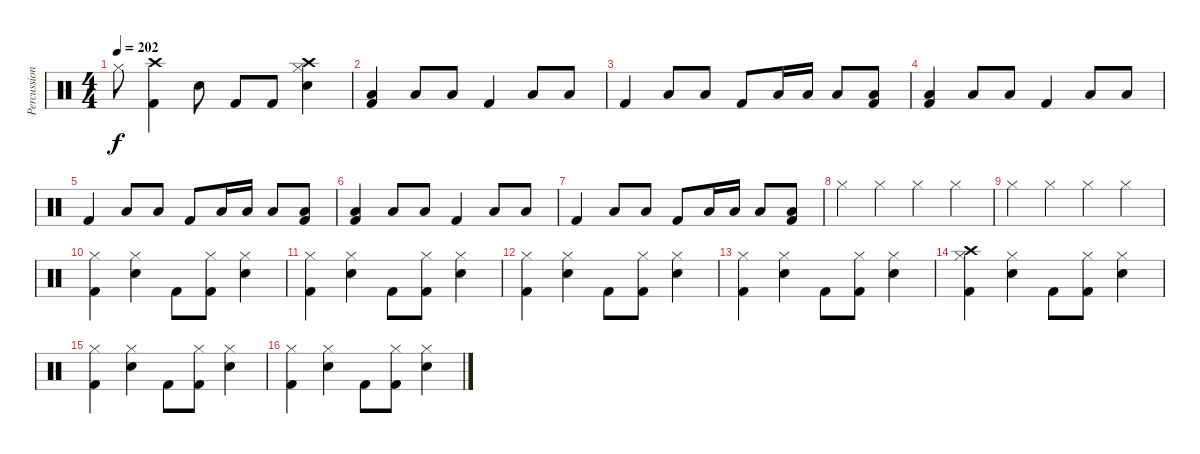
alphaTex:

\track ("Percussioni" "Percussion") {instrument percussion}
\staff {score}
\articulation defaults
\ts (4 4)
\tempo 202
\clef neutral
\ks c "Hi-Hat (closed)".8{dy f}
("Crash high (hit)" "Kick (hit) 2").4 "Snare (hit) 2".8 "Kick (hit) 2".8 "Kick (hit) 2".8 ("Hi-Hat (closed)" "Crash high (hit)" "Snare (hit) 2").4 |
("Low Tom (hit)" "Kick (hit) 2").4 "Low Tom (hit)".8 "Low Tom (hit)".8 "Kick (hit) 2".4 "Low Tom (hit)".8 "Low Tom (hit)".8 |
"Kick (hit) 2".4 "Low Tom (hit)".8 "Low Tom (hit)".8 "Kick (hit) 2".8 "Low Tom (hit)".16 "Low Tom (hit)".16 "Low Tom (hit)".8 ("Low Tom (hit)" "Kick (hit) 2").8 |
("Low Tom (hit)" "Kick (hit) 2").4 "Low Tom (hit)".8 "Low Tom (hit)".8 "Kick (hit) 2".4 "Low Tom (hit)".8 "Low Tom (hit)".8 |
"Kick (hit) 2".4 "Low Tom (hit)".8 "Low Tom (hit)".8 "Kick (hit) 2".8 "Low Tom (hit)".16 "Low Tom (hit)".16 "Low Tom (hit)".8 ("Low Tom (hit)" "Kick (hit) 2").8 |
("Low Tom (hit)" "Kick (hit) 2").4 "Low Tom (hit)".8 "Low Tom (hit)".8 "Kick (hit) 2".4 "Low Tom (hit)".8 "Low Tom (hit)".8 |
"Kick (hit) 2".4 "Low Tom (hit)".8 "Low Tom (hit)".8 "Kick (hit) 2".8 "Low Tom (hit)".16 "Low Tom (hit)".16 "Low Tom (hit)".8 ("Low Tom (hit)" "Kick (hit) 2").8 |
"Hi-Hat (closed)".4 "Hi-Hat (closed)".4 "Hi-Hat (closed)".4 "Hi-Hat (closed)".4 |
"Hi-Hat (closed)".4 "Hi-Hat (closed)".4 "Hi-Hat (closed)".4 "Hi-Hat (closed)".4 |
("Hi-Hat (closed)" "Kick (hit) 2").4 ("Hi-Hat (closed)" "Snare (hit) 2").4 "Kick (hit) 2".8 ("Hi-Hat (closed)" "Kick (hit) 2").8 ("Hi-Hat (closed)" "Snare (hit) 2").4 |
("Hi-Hat (closed)" "Kick (hit) 2").4 ("Hi-Hat (closed)" "Snare (hit) 2").4 "Kick (hit) 2".8 ("Hi-Hat (closed)" "Kick (hit) 2").8 ("Hi-Hat (closed)" "Snare (hit) 2").4 |
("Hi-Hat (closed)" "Kick (hit) 2").4 ("Hi-Hat (closed)" "Snare (hit) 2").4 "Kick (hit) 2".8 ("Hi-Hat (closed)" "Kick (hit) 2").8 ("Hi-Hat (closed)" "Snare (hit) 2").4 |
("Hi-Hat (closed)" "Kick (hit) 2").4 ("Hi-Hat (closed)" "Snare (hit) 2").4 "Kick (hit) 2".8 ("Hi-Hat (closed)" "Kick (hit) 2").8 ("Hi-Hat (closed)" "Snare (hit) 2").4 |
("Hi-Hat (closed)" "Crash high (hit)" "Kick (hit) 2").4 ("Hi-Hat (closed)" "Snare (hit) 2").4 "Kick (hit) 2".8 ("Hi-Hat (closed)" "Kick (hit) 2").8 ("Hi-Hat (closed)" "Snare (hit) 2").4 |
("Hi-Hat (closed)" "Kick (hit) 2").4 ("Hi-Hat (closed)" "Snare (hit) 2").4 "Kick (hit) 2".8 ("Hi-Hat (closed)" "Kick (hit) 2").8 ("Hi-Hat (closed)" "Snare (hit) 2").4 |
("Hi-Hat (closed)" "Kick (hit) 2").4 ("Hi-Hat (closed)" "Snare (hit) 2").4 "Kick (hit) 2".8 ("Hi-Hat (closed)" "Kick (hit) 2").8 ("Hi-Hat (closed)" "Snare (hit) 2").4
